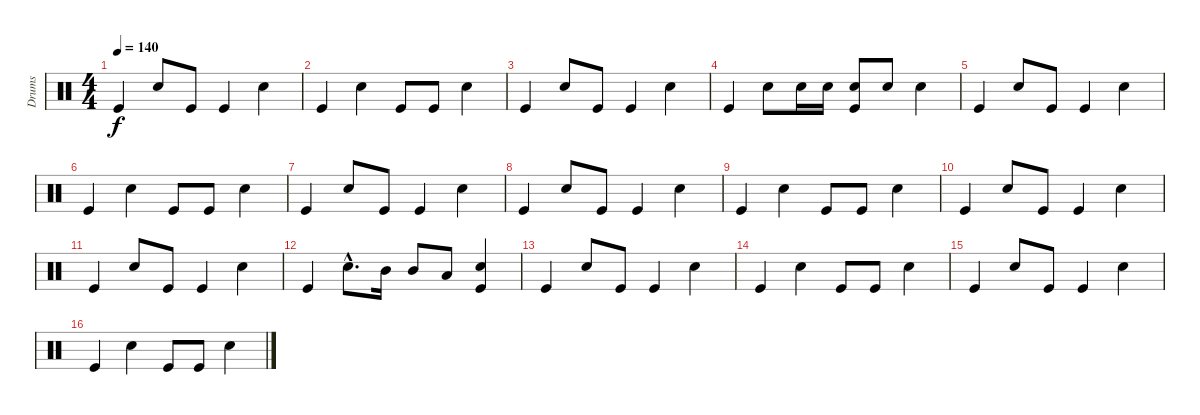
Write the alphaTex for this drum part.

\track ("Drums" "Drums") {instrument percussion}
\staff {score}
\articulation defaults
\ts (4 4)
\tempo 140
\clef neutral
\ks c "Kick (hit)".4{dy f} "Snare (hit) 2".8 "Kick (hit)".8 "Kick (hit)".4 "Snare (hit) 2".4
|
"Kick (hit)".4 "Snare (hit) 2".4 "Kick (hit)".8 "Kick (hit)".8 "Snare (hit) 2".4 |
"Kick (hit)".4 "Snare (hit) 2".8 "Kick (hit)".8 "Kick (hit)".4 "Snare (hit) 2".4 |
"Kick (hit)".4 "Snare (hit) 2".8 "Snare (hit) 2".16 "Snare (hit) 2".16 ("Snare (hit) 2" "Kick (hit)").8 "Snare (hit) 2".8 "Snare (hit) 2".4 |
"Kick (hit)".4 "Snare (hit) 2".8 "Kick (hit)".8 "Kick (hit)".4 "Snare (hit) 2".4 |
"Kick (hit)".4 "Snare (hit) 2".4 "Kick (hit)".8 "Kick (hit)".8 "Snare (hit) 2".4 |
"Kick (hit)".4 "Snare (hit) 2".8 "Kick (hit)".8 "Kick (hit)".4 "Snare (hit) 2".4 |
"Kick (hit)".4 "Snare (hit) 2".8 "Kick (hit)".8 "Kick (hit)".4 "Snare (hit) 2".4 |
"Kick (hit)".4 "Snare (hit) 2".4 "Kick (hit)".8 "Kick (hit)".8 "Snare (hit) 2".4 |
"Kick (hit)".4 "Snare (hit) 2".8 "Kick (hit)".8 "Kick (hit)".4 "Snare (hit) 2".4 |
"Kick (hit)".4 "Snare (hit) 2".8 "Kick (hit)".8 "Kick (hit)".4 "Snare (hit) 2".4 |
"Kick (hit)".4 "Snare (hit) 2"{hac}.8{d} "Mid Tom (hit)".16 "Mid Tom (hit)".8 "Low Tom (hit)".8 ("Snare (hit) 2" "Kick (hit)").4 |
"Kick (hit)".4 "Snare (hit) 2".8 "Kick (hit)".8 "Kick (hit)".4 "Snare (hit) 2".4 |
"Kick (hit)".4 "Snare (hit) 2".4 "Kick (hit)".8 "Kick (hit)".8 "Snare (hit) 2".4 |
"Kick (hit)".4 "Snare (hit) 2".8 "Kick (hit)".8 "Kick (hit)".4 "Snare (hit) 2".4 |
"Kick (hit)".4 "Snare (hit) 2".4 "Kick (hit)".8 "Kick (hit)".8 "Snare (hit) 2".4
